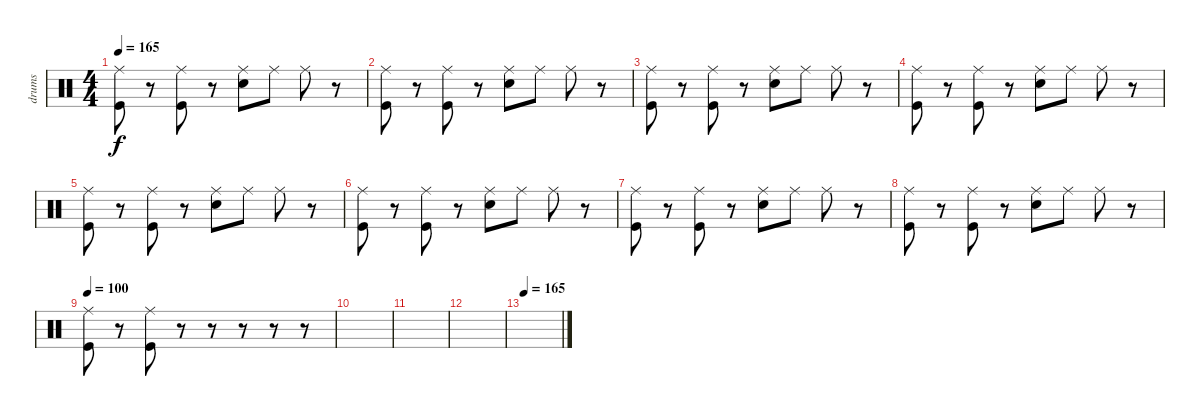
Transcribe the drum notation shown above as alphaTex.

\track ("drums" "drums") {instrument percussion}
\staff {score}
\articulation defaults
\ts (4 4)
\tempo 165
\clef neutral
\ks c
("Kick (hit)" "Ride (middle)").8{dy f} r.8 ("Kick (hit)" "Ride (middle)").8 r.8 ("Snare (hit) 2" "Ride (middle)").8 "Ride (middle)".8 "Ride (middle)".8 r.8 |
("Kick (hit)" "Ride (middle)").8 r.8 ("Kick (hit)" "Ride (middle)").8 r.8 ("Snare (hit) 2" "Ride (middle)").8 "Ride (middle)".8 "Ride (middle)".8 r.8 |
("Kick (hit)" "Ride (middle)").8 r.8 ("Kick (hit)" "Ride (middle)").8 r.8 ("Snare (hit) 2" "Ride (middle)").8 "Ride (middle)".8 "Ride (middle)".8 r.8 |
("Kick (hit)" "Ride (middle)").8 r.8 ("Kick (hit)" "Ride (middle)").8 r.8 ("Snare (hit) 2" "Ride (middle)").8 "Ride (middle)".8 "Ride (middle)".8 r.8 |
("Kick (hit)" "Ride (middle)").8 r.8 ("Kick (hit)" "Ride (middle)").8 r.8 ("Snare (hit) 2" "Ride (middle)").8 "Ride (middle)".8 "Ride (middle)".8 r.8 |
("Kick (hit)" "Ride (middle)").8 r.8 ("Kick (hit)" "Ride (middle)").8 r.8 ("Snare (hit) 2" "Ride (middle)").8 "Ride (middle)".8 "Ride (middle)".8 r.8 |
("Kick (hit)" "Ride (middle)").8 r.8 ("Kick (hit)" "Ride (middle)").8 r.8 ("Snare (hit) 2" "Ride (middle)").8 "Ride (middle)".8 "Ride (middle)".8 r.8 |
("Kick (hit)" "Ride (middle)").8 r.8 ("Kick (hit)" "Ride (middle)").8 r.8 ("Snare (hit) 2" "Ride (middle)").8 "Ride (middle)".8 "Ride (middle)".8 r.8 |
\tempo 100
("Kick (hit)" "Ride (middle)").8 r.8 ("Kick (hit)" "Ride (middle)").8 r.8 r.8 r.8 r.8 r.8 |
|
|
|
\tempo 165
